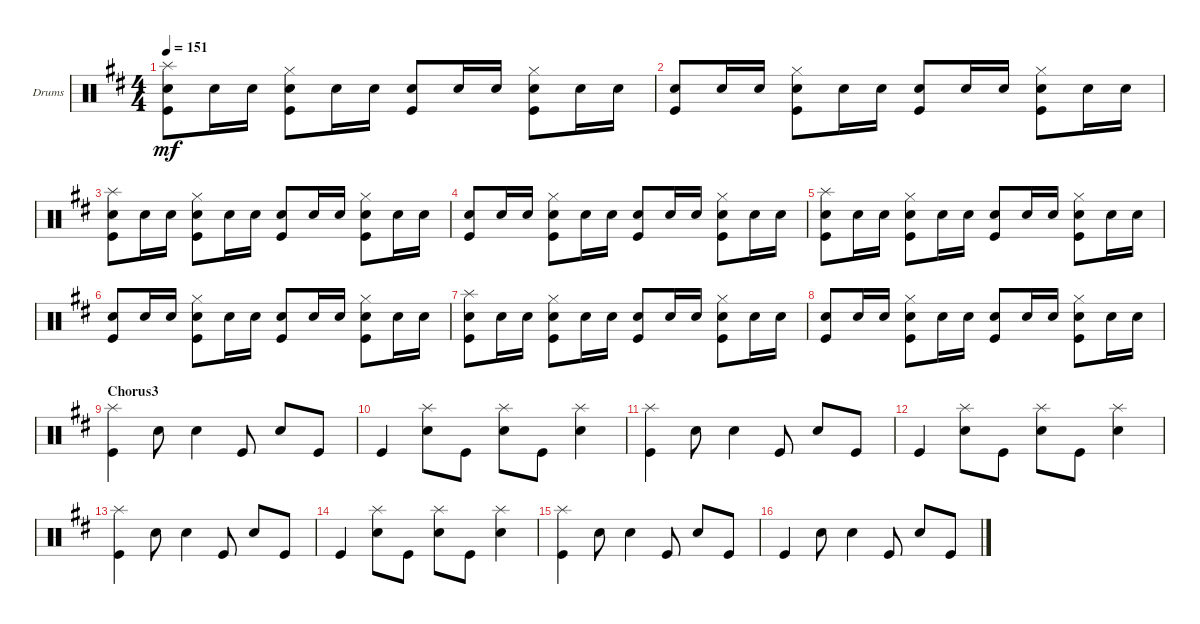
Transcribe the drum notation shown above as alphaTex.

\defaultSystemsLayout 4
\bracketExtendMode groupsimilarinstruments
\firstSystemTrackNameOrientation horizontal
\otherSystemsTrackNameOrientation horizontal
\track ("Drumkit" "Drums") {instrument percussion}
\staff {score}
\articulation defaults
\ts (4 4)
\tempo 151
\clef neutral
\ks d
("Kick (hit)" "Snare (hit) 2" "Splash (hit)").8{dy mf} "Snare (hit) 2".16 "Snare (hit) 2".16 ("Kick (hit)" "Hi-Hat (closed)" "Snare (hit) 2").8 "Snare (hit) 2".16 "Snare (hit) 2".16 ("Kick (hit)" "Snare (hit) 2").8 "Snare (hit) 2".16 "Snare (hit) 2".16 ("Kick (hit)" "Hi-Hat (closed)" "Snare (hit) 2").8 "Snare (hit) 2".16 "Snare (hit) 2".16 |
("Kick (hit)" "Snare (hit) 2").8 "Snare (hit) 2".16 "Snare (hit) 2".16 ("Kick (hit)" "Hi-Hat (closed)" "Snare (hit) 2").8 "Snare (hit) 2".16 "Snare (hit) 2".16 ("Kick (hit)" "Snare (hit) 2").8 "Snare (hit) 2".16 "Snare (hit) 2".16 ("Kick (hit)" "Hi-Hat (closed)" "Snare (hit) 2").8 "Snare (hit) 2".16 "Snare (hit) 2".16 |
("Kick (hit)" "Snare (hit) 2" "Splash (hit)").8 "Snare (hit) 2".16 "Snare (hit) 2".16 ("Kick (hit)" "Hi-Hat (closed)" "Snare (hit) 2").8 "Snare (hit) 2".16 "Snare (hit) 2".16 ("Kick (hit)" "Snare (hit) 2").8 "Snare (hit) 2".16 "Snare (hit) 2".16 ("Kick (hit)" "Hi-Hat (closed)" "Snare (hit) 2").8 "Snare (hit) 2".16 "Snare (hit) 2".16 |
("Kick (hit)" "Snare (hit) 2").8 "Snare (hit) 2".16 "Snare (hit) 2".16 ("Kick (hit)" "Hi-Hat (closed)" "Snare (hit) 2").8 "Snare (hit) 2".16 "Snare (hit) 2".16 ("Kick (hit)" "Snare (hit) 2").8 "Snare (hit) 2".16 "Snare (hit) 2".16 ("Kick (hit)" "Hi-Hat (closed)" "Snare (hit) 2").8 "Snare (hit) 2".16 "Snare (hit) 2".16 |
("Kick (hit)" "Snare (hit) 2" "Splash (hit)").8 "Snare (hit) 2".16 "Snare (hit) 2".16 ("Kick (hit)" "Hi-Hat (closed)" "Snare (hit) 2").8 "Snare (hit) 2".16 "Snare (hit) 2".16 ("Kick (hit)" "Snare (hit) 2").8 "Snare (hit) 2".16 "Snare (hit) 2".16 ("Kick (hit)" "Hi-Hat (closed)" "Snare (hit) 2").8 "Snare (hit) 2".16 "Snare (hit) 2".16 |
("Kick (hit)" "Snare (hit) 2").8 "Snare (hit) 2".16 "Snare (hit) 2".16 ("Kick (hit)" "Hi-Hat (closed)" "Snare (hit) 2").8 "Snare (hit) 2".16 "Snare (hit) 2".16 ("Kick (hit)" "Snare (hit) 2").8 "Snare (hit) 2".16 "Snare (hit) 2".16 ("Kick (hit)" "Hi-Hat (closed)" "Snare (hit) 2").8 "Snare (hit) 2".16 "Snare (hit) 2".16 |
("Kick (hit)" "Snare (hit) 2" "Splash (hit)").8 "Snare (hit) 2".16 "Snare (hit) 2".16 ("Kick (hit)" "Hi-Hat (closed)" "Snare (hit) 2").8 "Snare (hit) 2".16 "Snare (hit) 2".16 ("Kick (hit)" "Snare (hit) 2").8 "Snare (hit) 2".16 "Snare (hit) 2".16 ("Kick (hit)" "Hi-Hat (closed)" "Snare (hit) 2").8 "Snare (hit) 2".16 "Snare (hit) 2".16 |
("Kick (hit)" "Snare (hit) 2").8 "Snare (hit) 2".16 "Snare (hit) 2".16 ("Kick (hit)" "Hi-Hat (closed)" "Snare (hit) 2").8 "Snare (hit) 2".16 "Snare (hit) 2".16 ("Kick (hit)" "Snare (hit) 2").8 "Snare (hit) 2".16 "Snare (hit) 2".16 ("Kick (hit)" "Hi-Hat (closed)" "Snare (hit) 2").8 "Snare (hit) 2".16 "Snare (hit) 2".16 |
\section ("" "Chorus3")
("Kick (hit)" "Splash (hit)").4 "Snare (hit) 2".8 "Snare (hit) 2".4 "Kick (hit)".8 "Snare (hit) 2".8 "Kick (hit)".8 |
"Kick (hit)".4 ("Snare (hit) 2" "Splash (hit)").8 "Kick (hit)".8 ("Snare (hit) 2" "Splash (hit)").8 "Kick (hit)".8 ("Snare (hit) 2" "Splash (hit)").4 |
("Kick (hit)" "Splash (hit)").4 "Snare (hit) 2".8 "Snare (hit) 2".4 "Kick (hit)".8 "Snare (hit) 2".8 "Kick (hit)".8 |
"Kick (hit)".4 ("Snare (hit) 2" "Splash (hit)").8 "Kick (hit)".8 ("Snare (hit) 2" "Splash (hit)").8 "Kick (hit)".8 ("Snare (hit) 2" "Splash (hit)").4 |
("Kick (hit)" "Splash (hit)").4 "Snare (hit) 2".8 "Snare (hit) 2".4 "Kick (hit)".8 "Snare (hit) 2".8 "Kick (hit)".8 |
"Kick (hit)".4 ("Snare (hit) 2" "Splash (hit)").8 "Kick (hit)".8 ("Snare (hit) 2" "Splash (hit)").8 "Kick (hit)".8 ("Snare (hit) 2" "Splash (hit)").4 |
("Kick (hit)" "Splash (hit)").4 "Snare (hit) 2".8 "Snare (hit) 2".4 "Kick (hit)".8 "Snare (hit) 2".8 "Kick (hit)".8 |
"Kick (hit)".4 "Snare (hit) 2".8 "Snare (hit) 2".4 "Kick (hit)".8 "Snare (hit) 2".8 "Kick (hit)".8
